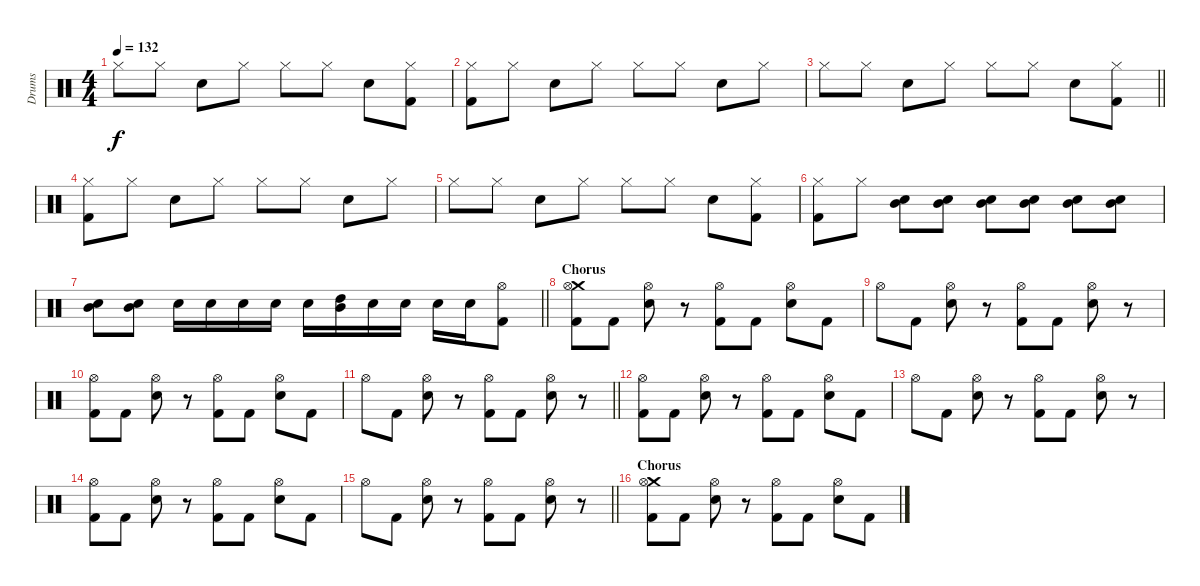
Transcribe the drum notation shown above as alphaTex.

\track ("Drums" "Drums") {instrument percussion}
\staff
\articulation defaults
\ts (4 4)
\tempo 132
\clef neutral
\ks c "Hi-Hat (closed)".8{dy f} "Hi-Hat (closed)".8 "Snare (hit) 2".8 "Hi-Hat (closed)".8 "Hi-Hat (closed)".8 "Hi-Hat (closed)".8 "Snare (hit) 2".8
("Hi-Hat (closed)" "Kick (hit) 2").8 |
("Hi-Hat (closed)" "Kick (hit) 2").8 "Hi-Hat (closed)".8 "Snare (hit) 2".8 "Hi-Hat (closed)".8 "Hi-Hat (closed)".8 "Hi-Hat (closed)".8 "Snare (hit) 2".8 "Hi-Hat (closed)".8 |
\barLineRight lightlight "Hi-Hat (closed)".8 "Hi-Hat (closed)".8 "Snare (hit) 2".8 "Hi-Hat (closed)".8 "Hi-Hat (closed)".8 "Hi-Hat (closed)".8 "Snare (hit) 2".8
("Hi-Hat (closed)" "Kick (hit) 2").8 |
("Hi-Hat (closed)" "Kick (hit) 2").8 "Hi-Hat (closed)".8 "Snare (hit) 2".8 "Hi-Hat (closed)".8 "Hi-Hat (closed)".8 "Hi-Hat (closed)".8 "Snare (hit) 2".8 "Hi-Hat (closed)".8 |
"Hi-Hat (closed)".8 "Hi-Hat (closed)".8 "Snare (hit) 2".8 "Hi-Hat (closed)".8 "Hi-Hat (closed)".8 "Hi-Hat (closed)".8 "Snare (hit) 2".8 ("Hi-Hat (closed)" "Kick (hit) 2").8 |
("Hi-Hat (closed)" "Kick (hit) 2").8 "Hi-Hat (closed)".8 ("Mid Tom (hit)" "Snare (hit) 2").8 ("Mid Tom (hit)" "Snare (hit) 2").8 ("Mid Tom (hit)" "Snare (hit) 2").8 ("Mid Tom (hit)" "Snare (hit) 2").8 ("Mid Tom (hit)" "Snare (hit) 2").8 ("Mid Tom (hit)" "Snare (hit) 2").8 |
\barLineRight lightlight
("Mid Tom (hit)" "Snare (hit) 2").8 ("Mid Tom (hit)" "Snare (hit) 2").8 "Snare (hit) 2".16 "Snare (hit) 2".16 "Snare (hit) 2".16 "Snare (hit) 2".16 "Snare (hit) 2".16 ("Mid Tom (hit)" "High Tom (hit)").16 "Snare (hit) 2".16 "Snare (hit) 2".16 "Snare (hit) 2".16 "Snare (hit) 2".16 ("Hi-Hat (open)" "Kick (hit) 2").8 |
\section ("" "Chorus")
("Crash medium (hit)" "Hi-Hat (open)" "Kick (hit) 2").8 "Kick (hit) 2".8 ("Hi-Hat (open)" "Snare (hit) 2").8 r.8 ("Hi-Hat (open)" "Kick (hit) 2").8 "Kick (hit) 2".8 ("Hi-Hat (open)" "Snare (hit) 2").8 "Kick (hit) 2".8 |
"Hi-Hat (open)".8 "Kick (hit) 2".8 ("Hi-Hat (open)" "Snare (hit) 2").8 r.8 ("Hi-Hat (open)" "Kick (hit) 2").8 "Kick (hit) 2".8 ("Hi-Hat (open)" "Snare (hit) 2").8 r.8 |
("Hi-Hat (open)" "Kick (hit) 2").8 "Kick (hit) 2".8 ("Hi-Hat (open)" "Snare (hit) 2").8 r.8 ("Hi-Hat (open)" "Kick (hit) 2").8 "Kick (hit) 2".8 ("Hi-Hat (open)" "Snare (hit) 2").8 "Kick (hit) 2".8 |
\barLineRight lightlight "Hi-Hat (open)".8 "Kick (hit) 2".8
("Hi-Hat (open)" "Snare (hit) 2").8 r.8 ("Hi-Hat (open)" "Kick (hit) 2").8 "Kick (hit) 2".8 ("Hi-Hat (open)" "Snare (hit) 2").8 r.8 |
("Hi-Hat (open)" "Kick (hit) 2").8 "Kick (hit) 2".8 ("Hi-Hat (open)" "Snare (hit) 2").8 r.8 ("Hi-Hat (open)" "Kick (hit) 2").8 "Kick (hit) 2".8 ("Hi-Hat (open)" "Snare (hit) 2").8 "Kick (hit) 2".8 |
"Hi-Hat (open)".8 "Kick (hit) 2".8 ("Hi-Hat (open)" "Snare (hit) 2").8 r.8 ("Hi-Hat (open)" "Kick (hit) 2").8 "Kick (hit) 2".8 ("Hi-Hat (open)" "Snare (hit) 2").8 r.8 |
("Hi-Hat (open)" "Kick (hit) 2").8 "Kick (hit) 2".8 ("Hi-Hat (open)" "Snare (hit) 2").8 r.8 ("Hi-Hat (open)" "Kick (hit) 2").8 "Kick (hit) 2".8 ("Hi-Hat (open)" "Snare (hit) 2").8 "Kick (hit) 2".8 |
\barLineRight lightlight "Hi-Hat (open)".8 "Kick (hit) 2".8
("Hi-Hat (open)" "Snare (hit) 2").8 r.8 ("Hi-Hat (open)" "Kick (hit) 2").8 "Kick (hit) 2".8 ("Hi-Hat (open)" "Snare (hit) 2").8 r.8 |
\section ("" "Chorus")
("Crash medium (hit)" "Hi-Hat (open)" "Kick (hit) 2").8 "Kick (hit) 2".8 ("Hi-Hat (open)" "Snare (hit) 2").8 r.8 ("Hi-Hat (open)" "Kick (hit) 2").8 "Kick (hit) 2".8 ("Hi-Hat (open)" "Snare (hit) 2").8 "Kick (hit) 2".8
